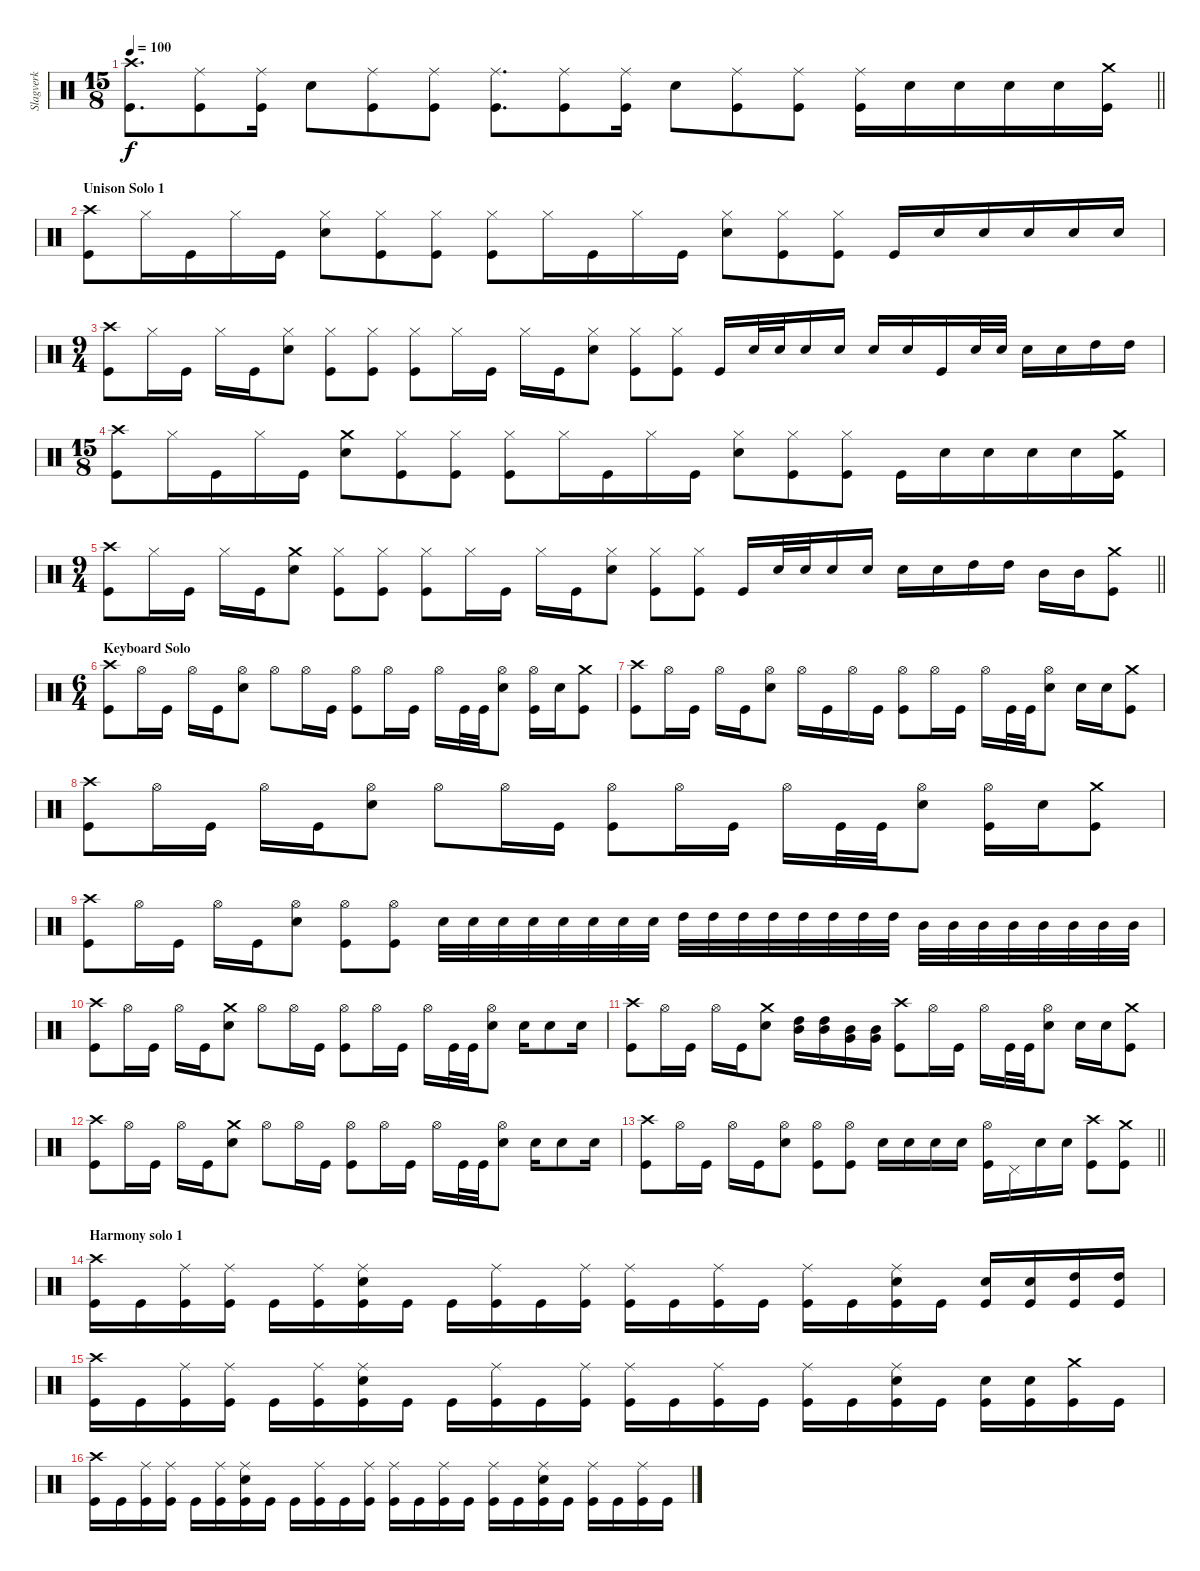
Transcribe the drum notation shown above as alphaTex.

\track ("Slagverk" "Slagverk") {instrument percussion}
\staff {score}
\articulation defaults
\ts (15 8)
\tempo 100
\clef neutral
\barLineRight lightlight
\ks c
("Crash high (hit)" "Kick (hit)").8{d dy f} ("Ride (middle)" "Kick (hit)").8 ("Ride (middle)" "Kick (hit)").16 "Electric Snare (hit)".8 ("Ride (middle)" "Kick (hit)").8 ("Ride (middle)" "Kick (hit)").8 ("Ride (middle)" "Kick (hit)").8{d} ("Ride (middle)" "Kick (hit)").8 ("Ride (middle)" "Kick (hit)").16 "Electric Snare (hit)".8 ("Ride (middle)" "Kick (hit)").8 ("Ride (middle)" "Kick (hit)").8 ("Ride (middle)" "Kick (hit)").16 "Electric Snare (hit)".16 "Electric Snare (hit)".16 "Electric Snare (hit)".16 "Electric Snare (hit)".16 ("Crash medium (hit)" "Kick (hit)").16 |
\section ("" "Unison Solo 1")
("Crash high (hit)" "Kick (hit)").8 "Hi-Hat (closed)".16 "Kick (hit)".16 "Hi-Hat (closed)".16 "Kick (hit)".16 ("Hi-Hat (closed)" "Electric Snare (hit)").8 ("Hi-Hat (closed)" "Kick (hit)").8 ("Hi-Hat (closed)" "Kick (hit)").8 ("Hi-Hat (closed)" "Kick (hit)").8 "Hi-Hat (closed)".16 "Kick (hit)".16 "Hi-Hat (closed)".16 "Kick (hit)".16 ("Hi-Hat (closed)" "Electric Snare (hit)").8 ("Hi-Hat (closed)" "Kick (hit)").8 ("Hi-Hat (closed)" "Kick (hit)").8 "Kick (hit)".16 "Electric Snare (hit)".16 "Electric Snare (hit)".16 "Electric Snare (hit)".16 "Electric Snare (hit)".16 "Electric Snare (hit)".16 |
\ts (9 4)
("Crash high (hit)" "Kick (hit)").8 "Hi-Hat (closed)".16 "Kick (hit)".16 "Hi-Hat (closed)".16 "Kick (hit)".16 ("Hi-Hat (closed)" "Electric Snare (hit)").8 ("Hi-Hat (closed)" "Kick (hit)").8 ("Hi-Hat (closed)" "Kick (hit)").8 ("Hi-Hat (closed)" "Kick (hit)").8 "Hi-Hat (closed)".16 "Kick (hit)".16 "Hi-Hat (closed)".16 "Kick (hit)".16 ("Hi-Hat (closed)" "Electric Snare (hit)").8 ("Hi-Hat (closed)" "Kick (hit)").8 ("Hi-Hat (closed)" "Kick (hit)").8 "Kick (hit)".16 "Electric Snare (hit)".32 "Electric Snare (hit)".32 "Electric Snare (hit)".16 "Electric Snare (hit)".16 "Electric Snare (hit)".16 "Electric Snare (hit)".16 "Kick (hit)".16 "Electric Snare (hit)".32 "Electric Snare (hit)".32 "Electric Snare (hit)".16 "Electric Snare (hit)".16 "High Tom (hit)".16 "High Tom (hit)".16 |
\ts (15 8)
("Crash high (hit)" "Kick (hit)").8 "Hi-Hat (closed)".16 "Kick (hit)".16 "Hi-Hat (closed)".16 "Kick (hit)".16 ("Crash medium (hit)" "Electric Snare (hit)").8 ("Hi-Hat (closed)" "Kick (hit)").8 ("Hi-Hat (closed)" "Kick (hit)").8 ("Hi-Hat (closed)" "Kick (hit)").8 "Hi-Hat (closed)".16 "Kick (hit)".16 "Hi-Hat (closed)".16 "Kick (hit)".16 ("Hi-Hat (closed)" "Electric Snare (hit)").8 ("Hi-Hat (closed)" "Kick (hit)").8 ("Hi-Hat (closed)" "Kick (hit)").8 "Kick (hit)".16 "Electric Snare (hit)".16 "Electric Snare (hit)".16 "Electric Snare (hit)".16 "Electric Snare (hit)".16 ("Crash medium (hit)" "Kick (hit)").16 |
\ts (9 4)
\barLineRight lightlight
("Crash high (hit)" "Kick (hit)").8 "Hi-Hat (closed)".16 "Kick (hit)".16 "Hi-Hat (closed)".16 "Kick (hit)".16 ("Crash medium (hit)" "Electric Snare (hit)").8 ("Hi-Hat (closed)" "Kick (hit)").8 ("Hi-Hat (closed)" "Kick (hit)").8 ("Hi-Hat (closed)" "Kick (hit)").8 "Hi-Hat (closed)".16 "Kick (hit)".16 "Hi-Hat (closed)".16 "Kick (hit)".16 ("Hi-Hat (closed)" "Electric Snare (hit)").8 ("Hi-Hat (closed)" "Kick (hit)").8 ("Hi-Hat (closed)" "Kick (hit)").8 "Kick (hit)".16 "Electric Snare (hit)".32 "Electric Snare (hit)".32 "Electric Snare (hit)".16 "Electric Snare (hit)".16 "Electric Snare (hit)".16 "Electric Snare (hit)".16 "High Tom (hit)".16 "High Tom (hit)".16 "Mid Tom (hit)".16 "Mid Tom (hit)".16 ("Crash medium (hit)" "Kick (hit)").8 |
\ts (6 4)
\section ("" "Keyboard Solo")
("Crash high (hit)" "Kick (hit)").8 "Hi-Hat (open)".16 "Kick (hit)".16 "Hi-Hat (open)".16 "Kick (hit)".16 ("Hi-Hat (open)" "Electric Snare (hit)").8 "Hi-Hat (open)".8 "Hi-Hat (open)".16 "Kick (hit)".16 ("Hi-Hat (open)" "Kick (hit)").8 "Hi-Hat (open)".16 "Kick (hit)".16 "Hi-Hat (open)".16 "Kick (hit)".32 "Kick (hit)".32 ("Hi-Hat (open)" "Electric Snare (hit)").8 ("Hi-Hat (open)" "Kick (hit)").16 "Electric Snare (hit)".16 ("Crash medium (hit)" "Kick (hit)").8 |
("Crash high (hit)" "Kick (hit)").8 "Hi-Hat (open)".16 "Kick (hit)".16 "Hi-Hat (open)".16 "Kick (hit)".16 ("Hi-Hat (open)" "Electric Snare (hit)").8 "Hi-Hat (open)".16 "Kick (hit)".16 "Hi-Hat (open)".16 "Kick (hit)".16 ("Hi-Hat (open)" "Kick (hit)").8 "Hi-Hat (open)".16 "Kick (hit)".16 "Hi-Hat (open)".16 "Kick (hit)".32 "Kick (hit)".32 ("Hi-Hat (open)" "Electric Snare (hit)").8 "Electric Snare (hit)".16 "Electric Snare (hit)".16 ("Crash medium (hit)" "Kick (hit)").8 |
("Crash high (hit)" "Kick (hit)").8 "Hi-Hat (open)".16 "Kick (hit)".16 "Hi-Hat (open)".16 "Kick (hit)".16 ("Hi-Hat (open)" "Electric Snare (hit)").8 "Hi-Hat (open)".8 "Hi-Hat (open)".16 "Kick (hit)".16 ("Hi-Hat (open)" "Kick (hit)").8 "Hi-Hat (open)".16 "Kick (hit)".16 "Hi-Hat (open)".16 "Kick (hit)".32 "Kick (hit)".32 ("Hi-Hat (open)" "Electric Snare (hit)").8 ("Hi-Hat (open)" "Kick (hit)").16 "Electric Snare (hit)".16 ("Crash medium (hit)" "Kick (hit)").8 |
("Crash high (hit)" "Kick (hit)").8 "Hi-Hat (open)".16 "Kick (hit)".16 "Hi-Hat (open)".16 "Kick (hit)".16 ("Hi-Hat (open)" "Electric Snare (hit)").8 ("Hi-Hat (open)" "Kick (hit)").8 ("Hi-Hat (open)" "Kick (hit)").8 "Electric Snare (hit)".32 "Electric Snare (hit)".32 "Electric Snare (hit)".32 "Electric Snare (hit)".32 "Electric Snare (hit)".32 "Electric Snare (hit)".32 "Electric Snare (hit)".32 "Electric Snare (hit)".32 "High Tom (hit)".32 "High Tom (hit)".32 "High Tom (hit)".32 "High Tom (hit)".32 "High Tom (hit)".32 "High Tom (hit)".32 "High Tom (hit)".32 "High Tom (hit)".32 "Mid Tom (hit)".32 "Mid Tom (hit)".32 "Mid Tom (hit)".32 "Mid Tom (hit)".32 "Mid Tom (hit)".32 "Mid Tom (hit)".32 "Mid Tom (hit)".32 "Mid Tom (hit)".32 |
("Crash high (hit)" "Kick (hit)").8 "Hi-Hat (open)".16 "Kick (hit)".16 "Hi-Hat (open)".16 "Kick (hit)".16 ("Crash medium (hit)" "Electric Snare (hit)").8 "Hi-Hat (open)".8 "Hi-Hat (open)".16 "Kick (hit)".16 ("Hi-Hat (open)" "Kick (hit)").8 "Hi-Hat (open)".16 "Kick (hit)".16 "Hi-Hat (open)".16 "Kick (hit)".32 "Kick (hit)".32 ("Hi-Hat (open)" "Electric Snare (hit)").8 "Electric Snare (hit)".16 "Electric Snare (hit)".8 "Electric Snare (hit)".16 |
("Crash high (hit)" "Kick (hit)").8 "Hi-Hat (open)".16 "Kick (hit)".16 "Hi-Hat (open)".16 "Kick (hit)".16 ("Crash medium (hit)" "Electric Snare (hit)").8 ("Mid Tom (hit)" "High Tom (hit)").16 ("Mid Tom (hit)" "High Tom (hit)").16 ("Very Low Tom (hit)" "Mid Tom (hit)").16 ("Very Low Tom (hit)" "Mid Tom (hit)").16 ("Crash high (hit)" "Kick (hit)").8 "Hi-Hat (open)".16 "Kick (hit)".16 "Hi-Hat (open)".16 "Kick (hit)".32 "Kick (hit)".32 ("Hi-Hat (open)" "Electric Snare (hit)").8 "Electric Snare (hit)".16 "Electric Snare (hit)".16 ("Crash medium (hit)" "Kick (hit)").8 |
("Crash high (hit)" "Kick (hit)").8 "Hi-Hat (open)".16 "Kick (hit)".16 "Hi-Hat (open)".16 "Kick (hit)".16 ("Crash medium (hit)" "Electric Snare (hit)").8 "Hi-Hat (open)".8 "Hi-Hat (open)".16 "Kick (hit)".16 ("Hi-Hat (open)" "Kick (hit)").8 "Hi-Hat (open)".16 "Kick (hit)".16 "Hi-Hat (open)".16 "Kick (hit)".32 "Kick (hit)".32 ("Hi-Hat (open)" "Electric Snare (hit)").8 "Electric Snare (hit)".16 "Electric Snare (hit)".8 "Electric Snare (hit)".16 |
\barLineRight lightlight
("Crash high (hit)" "Kick (hit)").8 "Hi-Hat (open)".16 "Kick (hit)".16 "Hi-Hat (open)".16 "Kick (hit)".16 ("Hi-Hat (open)" "Electric Snare (hit)").8 ("Hi-Hat (open)" "Kick (hit)").8 ("Hi-Hat (open)" "Kick (hit)").8 "Electric Snare (hit)".16 "Electric Snare (hit)".16 "Electric Snare (hit)".16 "Electric Snare (hit)".16 ("Hi-Hat (open)" "Kick (hit)").16 "Pedal Hi-Hat (hit)".16 "Electric Snare (hit)".16 "Electric Snare (hit)".16 ("Crash high (hit)" "Kick (hit)").8 ("Crash medium (hit)" "Kick (hit)").8 |
\section ("" "Harmony solo 1")
("Crash high (hit)" "Kick (hit)").16 "Kick (hit)".16 ("Ride (middle)" "Kick (hit)").16 ("Ride (middle)" "Kick (hit)").16 "Kick (hit)".16 ("Ride (middle)" "Kick (hit)").16 ("Ride (middle)" "Kick (hit)" "Electric Snare (hit)").16 "Kick (hit)".16 "Kick (hit)".16 ("Ride (middle)" "Kick (hit)").16 "Kick (hit)".16 ("Ride (middle)" "Kick (hit)").16 ("Ride (middle)" "Kick (hit)").16 "Kick (hit)".16 ("Ride (middle)" "Kick (hit)").16 "Kick (hit)".16 ("Ride (middle)" "Kick (hit)").16 "Kick (hit)".16 ("Ride (middle)" "Kick (hit)" "Electric Snare (hit)").16 "Kick (hit)".16 ("Kick (hit)" "Electric Snare (hit)").16 ("Kick (hit)" "Electric Snare (hit)").16 ("Kick (hit)" "High Tom (hit)").16 ("Kick (hit)" "High Tom (hit)").16 |
("Crash high (hit)" "Kick (hit)").16 "Kick (hit)".16 ("Ride (middle)" "Kick (hit)").16 ("Ride (middle)" "Kick (hit)").16 "Kick (hit)".16 ("Ride (middle)" "Kick (hit)").16 ("Ride (middle)" "Kick (hit)" "Electric Snare (hit)").16 "Kick (hit)".16 "Kick (hit)".16 ("Ride (middle)" "Kick (hit)").16 "Kick (hit)".16 ("Ride (middle)" "Kick (hit)").16 ("Ride (middle)" "Kick (hit)").16 "Kick (hit)".16 ("Ride (middle)" "Kick (hit)").16 "Kick (hit)".16 ("Ride (middle)" "Kick (hit)").16 "Kick (hit)".16 ("Ride (middle)" "Kick (hit)" "Electric Snare (hit)").16 "Kick (hit)".16 ("Kick (hit)" "Electric Snare (hit)").16 ("Kick (hit)" "Electric Snare (hit)").16 ("Crash medium (hit)" "Kick (hit)").16 "Kick (hit)".16 |
("Crash high (hit)" "Kick (hit)").16 "Kick (hit)".16 ("Ride (middle)" "Kick (hit)").16 ("Ride (middle)" "Kick (hit)").16 "Kick (hit)".16 ("Ride (middle)" "Kick (hit)").16 ("Ride (middle)" "Kick (hit)" "Electric Snare (hit)").16 "Kick (hit)".16 "Kick (hit)".16 ("Ride (middle)" "Kick (hit)").16 "Kick (hit)".16 ("Ride (middle)" "Kick (hit)").16 ("Ride (middle)" "Kick (hit)").16 "Kick (hit)".16 ("Ride (middle)" "Kick (hit)").16 "Kick (hit)".16 ("Ride (middle)" "Kick (hit)").16 "Kick (hit)".16 ("Ride (middle)" "Kick (hit)" "Electric Snare (hit)").16 "Kick (hit)".16 ("Ride (middle)" "Kick (hit)").16 "Kick (hit)".16 ("Ride (middle)" "Kick (hit)").16 "Kick (hit)".16
